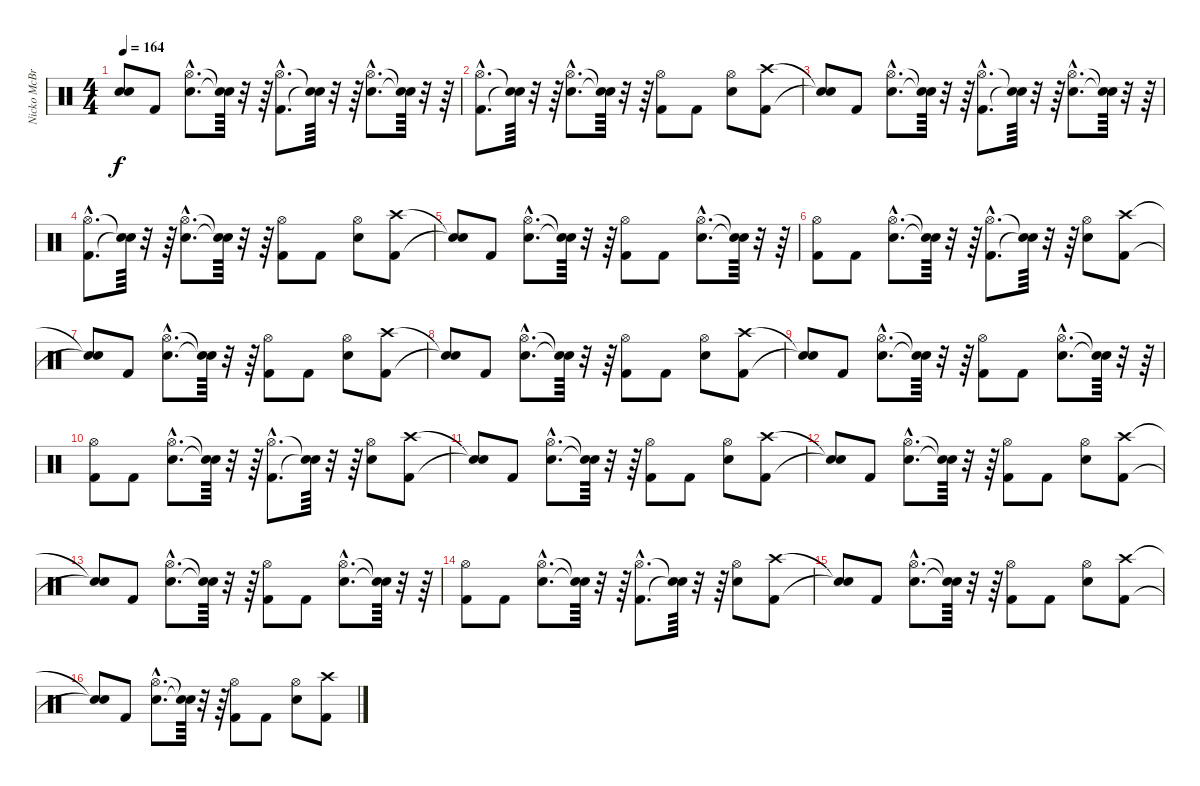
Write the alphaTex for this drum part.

\track ("Nicko McBrian (Drums)" "Nicko McBr") {instrument percussion}
\staff {score}
\articulation defaults
\ts (4 4)
\tempo 164
\clef neutral
\ks c
("Snare (hit)"{t} "Snare (hit)"{t}).8{dy f} "Kick (hit) 2".8 ("Snare (hit) 2"{hac} "Hi-Hat (open)"{hac}).8{d} ("Snare (hit)"{t} "Snare (hit)"{t}).64 r.32 r.64 ("Kick (hit) 2"{hac} "Hi-Hat (open)"{hac}).8{d} ("Snare (hit)"{t} "Snare (hit)"{t}).64 r.32 r.64 ("Snare (hit) 2"{hac} "Hi-Hat (open)"{hac}).8{d} ("Snare (hit)"{t} "Snare (hit)"{t}).64 r.32 r.64 |
("Kick (hit) 2"{hac} "Hi-Hat (open)"{hac}).8{d} ("Snare (hit)"{t} "Snare (hit)"{t}).64 r.32 r.64 ("Snare (hit) 2"{hac} "Hi-Hat (open)"{hac}).8{d} ("Snare (hit)"{t} "Snare (hit)"{t}).64 r.32 r.64 ("Kick (hit) 2" "Hi-Hat (open)").8 "Kick (hit) 2".8 ("Snare (hit) 2" "Hi-Hat (open)").8 ("Kick (hit) 2" "Crash high (hit)").8 |
("Snare (hit)"{t} "Snare (hit)"{t}).8 "Kick (hit) 2".8 ("Snare (hit) 2"{hac} "Hi-Hat (open)"{hac}).8{d} ("Snare (hit)"{t} "Snare (hit)"{t}).64 r.32 r.64 ("Kick (hit) 2"{hac} "Hi-Hat (open)"{hac}).8{d} ("Snare (hit)"{t} "Snare (hit)"{t}).64 r.32 r.64 ("Snare (hit) 2"{hac} "Hi-Hat (open)"{hac}).8{d} ("Snare (hit)"{t} "Snare (hit)"{t}).64 r.32 r.64 |
("Kick (hit) 2"{hac} "Hi-Hat (open)"{hac}).8{d} ("Snare (hit)"{t} "Snare (hit)"{t}).64 r.32 r.64 ("Snare (hit) 2"{hac} "Hi-Hat (open)"{hac}).8{d} ("Snare (hit)"{t} "Snare (hit)"{t}).64 r.32 r.64 ("Kick (hit) 2" "Hi-Hat (open)").8 "Kick (hit) 2".8 ("Snare (hit) 2" "Hi-Hat (open)").8 ("Kick (hit) 2" "Crash high (hit)").8 |
("Snare (hit)"{t} "Snare (hit)"{t}).8 "Kick (hit) 2".8 ("Snare (hit) 2"{hac} "Hi-Hat (open)"{hac}).8{d} ("Snare (hit)"{t} "Snare (hit)"{t}).64 r.32 r.64 ("Kick (hit) 2" "Hi-Hat (open)").8 "Kick (hit) 2".8 ("Snare (hit) 2"{hac} "Hi-Hat (open)"{hac}).8{d} ("Snare (hit)"{t} "Snare (hit)"{t}).64 r.32 r.64 |
("Kick (hit) 2" "Hi-Hat (open)").8 "Kick (hit) 2".8 ("Snare (hit) 2"{hac} "Hi-Hat (open)"{hac}).8{d} ("Snare (hit)"{t} "Snare (hit)"{t}).64 r.32 r.64 ("Kick (hit) 2"{hac} "Hi-Hat (open)"{hac}).8{d} ("Snare (hit)"{t} "Snare (hit)"{t}).64 r.32 r.64 ("Snare (hit) 2" "Hi-Hat (open)").8 ("Kick (hit) 2" "Crash high (hit)").8 |
("Snare (hit)"{t} "Snare (hit)"{t}).8 "Kick (hit) 2".8 ("Snare (hit) 2"{hac} "Hi-Hat (open)"{hac}).8{d} ("Snare (hit)"{t} "Snare (hit)"{t}).64 r.32 r.64 ("Kick (hit) 2" "Hi-Hat (open)").8 "Kick (hit) 2".8 ("Snare (hit) 2" "Hi-Hat (open)").8 ("Kick (hit) 2" "Crash high (hit)").8 |
("Snare (hit)"{t} "Snare (hit)"{t}).8 "Kick (hit) 2".8 ("Snare (hit) 2"{hac} "Hi-Hat (open)"{hac}).8{d} ("Snare (hit)"{t} "Snare (hit)"{t}).64 r.32 r.64 ("Kick (hit) 2" "Hi-Hat (open)").8 "Kick (hit) 2".8 ("Snare (hit) 2" "Hi-Hat (open)").8 ("Kick (hit) 2" "Crash high (hit)").8 |
("Snare (hit)"{t} "Snare (hit)"{t}).8 "Kick (hit) 2".8 ("Snare (hit) 2"{hac} "Hi-Hat (open)"{hac}).8{d} ("Snare (hit)"{t} "Snare (hit)"{t}).64 r.32 r.64 ("Kick (hit) 2" "Hi-Hat (open)").8 "Kick (hit) 2".8 ("Snare (hit) 2"{hac} "Hi-Hat (open)"{hac}).8{d} ("Snare (hit)"{t} "Snare (hit)"{t}).64 r.32 r.64 |
("Kick (hit) 2" "Hi-Hat (open)").8 "Kick (hit) 2".8 ("Snare (hit) 2"{hac} "Hi-Hat (open)"{hac}).8{d} ("Snare (hit)"{t} "Snare (hit)"{t}).64 r.32 r.64 ("Kick (hit) 2"{hac} "Hi-Hat (open)"{hac}).8{d} ("Snare (hit)"{t} "Snare (hit)"{t}).64 r.32 r.64 ("Snare (hit) 2" "Hi-Hat (open)").8 ("Kick (hit) 2" "Crash high (hit)").8 |
("Snare (hit)"{t} "Snare (hit)"{t}).8 "Kick (hit) 2".8 ("Snare (hit) 2"{hac} "Hi-Hat (open)"{hac}).8{d} ("Snare (hit)"{t} "Snare (hit)"{t}).64 r.32 r.64 ("Kick (hit) 2" "Hi-Hat (open)").8 "Kick (hit) 2".8 ("Snare (hit) 2" "Hi-Hat (open)").8 ("Kick (hit) 2" "Crash high (hit)").8 |
("Snare (hit)"{t} "Snare (hit)"{t}).8 "Kick (hit) 2".8 ("Snare (hit) 2"{hac} "Hi-Hat (open)"{hac}).8{d} ("Snare (hit)"{t} "Snare (hit)"{t}).64 r.32 r.64 ("Kick (hit) 2" "Hi-Hat (open)").8 "Kick (hit) 2".8 ("Snare (hit) 2" "Hi-Hat (open)").8 ("Kick (hit) 2" "Crash high (hit)").8 |
("Snare (hit)"{t} "Snare (hit)"{t}).8 "Kick (hit) 2".8 ("Snare (hit) 2"{hac} "Hi-Hat (open)"{hac}).8{d} ("Snare (hit)"{t} "Snare (hit)"{t}).64 r.32 r.64 ("Kick (hit) 2" "Hi-Hat (open)").8 "Kick (hit) 2".8 ("Snare (hit) 2"{hac} "Hi-Hat (open)"{hac}).8{d} ("Snare (hit)"{t} "Snare (hit)"{t}).64 r.32 r.64 |
("Kick (hit) 2" "Hi-Hat (open)").8 "Kick (hit) 2".8 ("Snare (hit) 2"{hac} "Hi-Hat (open)"{hac}).8{d} ("Snare (hit)"{t} "Snare (hit)"{t}).64 r.32 r.64 ("Kick (hit) 2"{hac} "Hi-Hat (open)"{hac}).8{d} ("Snare (hit)"{t} "Snare (hit)"{t}).64 r.32 r.64 ("Snare (hit) 2" "Hi-Hat (open)").8 ("Kick (hit) 2" "Crash high (hit)").8 |
("Snare (hit)"{t} "Snare (hit)"{t}).8 "Kick (hit) 2".8 ("Snare (hit) 2"{hac} "Hi-Hat (open)"{hac}).8{d} ("Snare (hit)"{t} "Snare (hit)"{t}).64 r.32 r.64 ("Kick (hit) 2" "Hi-Hat (open)").8 "Kick (hit) 2".8 ("Snare (hit) 2" "Hi-Hat (open)").8 ("Kick (hit) 2" "Crash high (hit)").8 |
("Snare (hit)"{t} "Snare (hit)"{t}).8 "Kick (hit) 2".8 ("Snare (hit) 2"{hac} "Hi-Hat (open)"{hac}).8{d} ("Snare (hit)"{t} "Snare (hit)"{t}).64 r.32 r.64 ("Kick (hit) 2" "Hi-Hat (open)").8 "Kick (hit) 2".8 ("Snare (hit) 2" "Hi-Hat (open)").8 ("Kick (hit) 2" "Crash high (hit)").8
